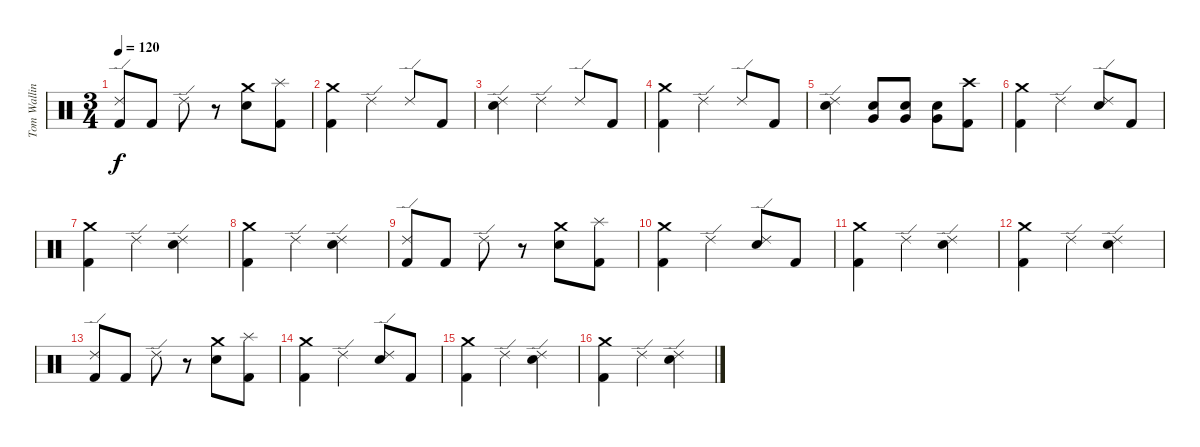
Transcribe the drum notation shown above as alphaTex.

\track ("Tom Walling (Drums)" "Tom Wallin") {instrument percussion}
\staff {score}
\articulation defaults
\ts (3 4)
\tempo 120
\clef neutral
\ks c
("Ride (edge) 2" "Kick (hit) 2").8{dy f} "Kick (hit) 2".8 "Ride (edge) 2".8 r.8 ("Crash medium (hit)" "Electric Snare (hit)").8 ("Splash (hit)" "Kick (hit) 2").8 |
("Crash medium (hit)" "Kick (hit) 2").4 "Ride (edge) 2".4 "Ride (edge) 2".8 "Kick (hit) 2".8 |
("Ride (edge) 2" "Electric Snare (hit)").4 "Ride (edge) 2".4 "Ride (edge) 2".8 "Kick (hit) 2".8 |
("Crash medium (hit)" "Kick (hit) 2").4 "Ride (edge) 2".4 "Ride (edge) 2".8 "Kick (hit) 2".8 |
("Ride (edge) 2" "Electric Snare (hit)").4 ("Very Low Tom (hit)" "Electric Snare (hit)").8 ("Very Low Tom (hit)" "Electric Snare (hit)").8 ("Very Low Tom (hit)" "Electric Snare (hit)").8 ("Crash high (hit)" "Kick (hit) 2").8 |
("Crash medium (hit)" "Kick (hit) 2").4 "Ride (edge) 2".4 ("Ride (edge) 2" "Electric Snare (hit)").8 "Kick (hit) 2".8 |
("Kick (hit) 2" "Crash medium (hit)").4 "Ride (edge) 2".4 ("Electric Snare (hit)" "Ride (edge) 2").4 |
("Crash medium (hit)" "Kick (hit) 2").4 "Ride (edge) 2".4 ("Ride (edge) 2" "Electric Snare (hit)").4 |
("Ride (edge) 2" "Kick (hit) 2").8 "Kick (hit) 2".8 "Ride (edge) 2".8 r.8 ("Crash medium (hit)" "Electric Snare (hit)").8 ("Splash (hit)" "Kick (hit) 2").8 |
("Crash medium (hit)" "Kick (hit) 2").4 "Ride (edge) 2".4 ("Ride (edge) 2" "Electric Snare (hit)").8 "Kick (hit) 2".8 |
("Kick (hit) 2" "Crash medium (hit)").4 "Ride (edge) 2".4 ("Electric Snare (hit)" "Ride (edge) 2").4 |
("Crash medium (hit)" "Kick (hit) 2").4 "Ride (edge) 2".4 ("Ride (edge) 2" "Electric Snare (hit)").4 |
("Ride (edge) 2" "Kick (hit) 2").8 "Kick (hit) 2".8 "Ride (edge) 2".8 r.8 ("Crash medium (hit)" "Electric Snare (hit)").8 ("Splash (hit)" "Kick (hit) 2").8 |
("Crash medium (hit)" "Kick (hit) 2").4 "Ride (edge) 2".4 ("Ride (edge) 2" "Electric Snare (hit)").8 "Kick (hit) 2".8 |
("Kick (hit) 2" "Crash medium (hit)").4 "Ride (edge) 2".4 ("Electric Snare (hit)" "Ride (edge) 2").4 |
("Crash medium (hit)" "Kick (hit) 2").4 "Ride (edge) 2".4 ("Ride (edge) 2" "Electric Snare (hit)").4
